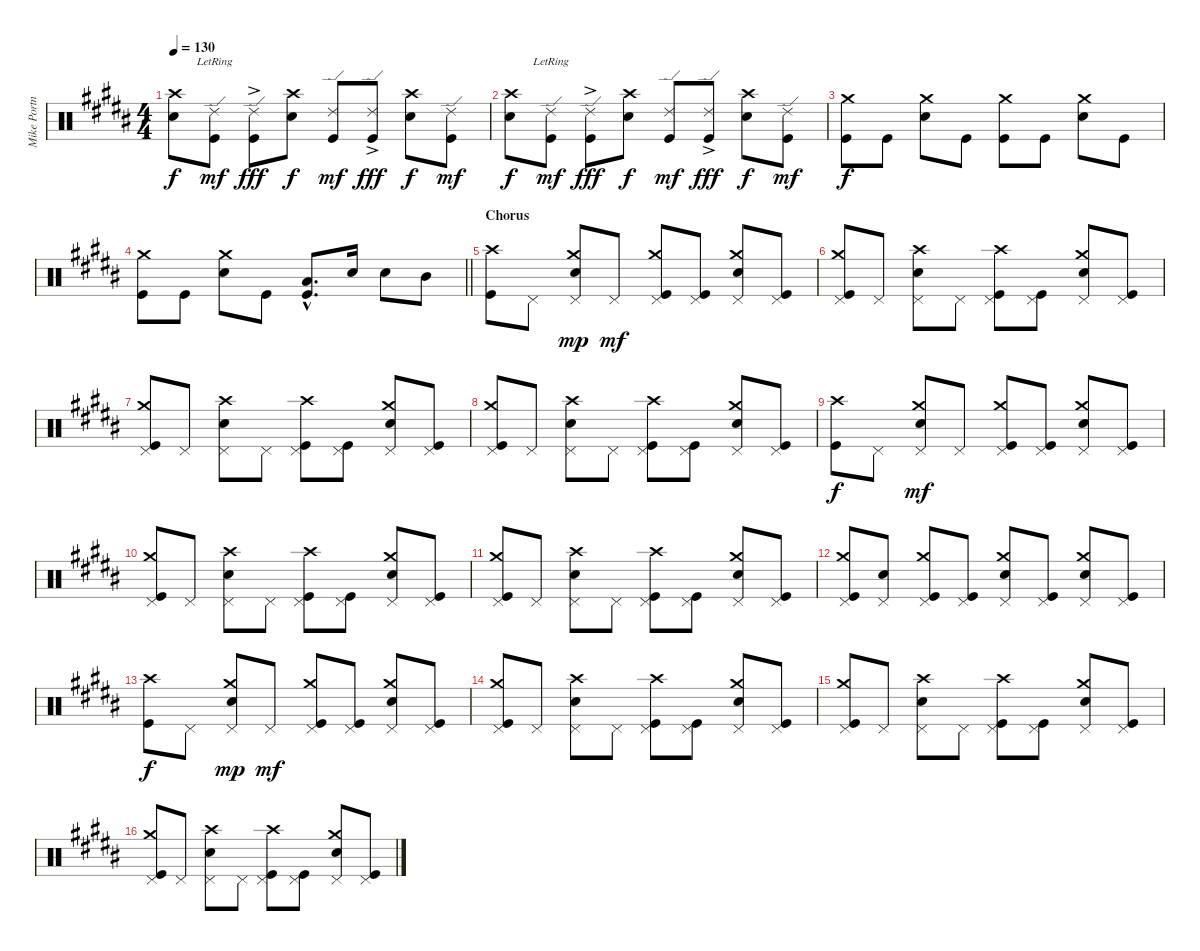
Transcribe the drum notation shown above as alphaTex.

\track ("Mike Portnoy" "Mike Portn") {instrument percussion}
\staff {score}
\articulation defaults
\ts (4 4)
\tempo 130
\clef neutral
\ks g#minor
("Crash high (hit)" "Electric Snare (hit)").8{dy f} ("Ride (edge) 2"{lr} "Kick (hit)").8{dy mf} ("Ride (edge) 2" "Kick (hit)"{ac}).8{dy fff} ("Crash high (hit)" "Electric Snare (hit)").8{dy f} ("Ride (edge) 2" "Kick (hit)").8{dy mf} ("Ride (edge) 2" "Kick (hit)"{ac}).8{dy fff} ("Crash high (hit)" "Electric Snare (hit)").8{dy f} ("Ride (edge) 2" "Kick (hit)").8{dy mf} |
("Crash high (hit)" "Electric Snare (hit)").8{dy f} ("Ride (edge) 2"{lr} "Kick (hit)").8{dy mf} ("Ride (edge) 2" "Kick (hit)"{ac}).8{dy fff} ("Crash high (hit)" "Electric Snare (hit)").8{dy f} ("Ride (edge) 2" "Kick (hit)").8{dy mf} ("Ride (edge) 2" "Kick (hit)"{ac}).8{dy fff} ("Crash high (hit)" "Electric Snare (hit)").8{dy f} ("Ride (edge) 2" "Kick (hit)").8{dy mf} |
("Crash medium (hit)" "Kick (hit)").8{dy f} "Kick (hit)".8 ("Crash medium (hit)" "Electric Snare (hit)").8 "Kick (hit)".8 ("Crash medium (hit)" "Kick (hit)").8 "Kick (hit)".8 ("Crash medium (hit)" "Electric Snare (hit)").8 "Kick (hit)".8 |
\barLineRight lightlight
("Crash medium (hit)" "Kick (hit)").8 "Kick (hit)".8 ("Crash medium (hit)" "Electric Snare (hit)").8 "Kick (hit)".8 ("Low Tom (hit)"{hac} "Kick (hit)"{hac}).8{d} "Electric Snare (hit)".16 "Electric Snare (hit)".8 "Mid Tom (hit)".8 |
\section ("" "Chorus")
("Crash high (hit)" "Kick (hit)").8 "Pedal Hi-Hat (hit)".8 ("Crash medium (hit)" "Pedal Hi-Hat (hit)" "Electric Snare (hit)").8{dy mp} "Pedal Hi-Hat (hit)".8{dy mf} ("Crash medium (hit)" "Pedal Hi-Hat (hit)" "Kick (hit)").8 ("Pedal Hi-Hat (hit)" "Kick (hit)").8 ("Crash medium (hit)" "Pedal Hi-Hat (hit)" "Electric Snare (hit)").8 ("Pedal Hi-Hat (hit)" "Kick (hit)").8 |
("Crash medium (hit)" "Pedal Hi-Hat (hit)" "Kick (hit)").8 "Pedal Hi-Hat (hit)".8 ("Crash high (hit)" "Pedal Hi-Hat (hit)" "Electric Snare (hit)").8 "Pedal Hi-Hat (hit)".8 ("Crash high (hit)" "Pedal Hi-Hat (hit)" "Kick (hit)").8 ("Pedal Hi-Hat (hit)" "Kick (hit)").8 ("Crash medium (hit)" "Pedal Hi-Hat (hit)" "Electric Snare (hit)").8 ("Pedal Hi-Hat (hit)" "Kick (hit)").8 |
("Crash medium (hit)" "Pedal Hi-Hat (hit)" "Kick (hit)").8 "Pedal Hi-Hat (hit)".8 ("Crash high (hit)" "Pedal Hi-Hat (hit)" "Electric Snare (hit)").8 "Pedal Hi-Hat (hit)".8 ("Crash high (hit)" "Pedal Hi-Hat (hit)" "Kick (hit)").8 ("Pedal Hi-Hat (hit)" "Kick (hit)").8 ("Crash medium (hit)" "Pedal Hi-Hat (hit)" "Electric Snare (hit)").8 ("Pedal Hi-Hat (hit)" "Kick (hit)").8 |
("Crash medium (hit)" "Pedal Hi-Hat (hit)" "Kick (hit)").8 "Pedal Hi-Hat (hit)".8 ("Crash high (hit)" "Pedal Hi-Hat (hit)" "Electric Snare (hit)").8 "Pedal Hi-Hat (hit)".8 ("Crash high (hit)" "Pedal Hi-Hat (hit)" "Kick (hit)").8 ("Pedal Hi-Hat (hit)" "Kick (hit)").8 ("Crash medium (hit)" "Pedal Hi-Hat (hit)" "Electric Snare (hit)").8 ("Pedal Hi-Hat (hit)" "Kick (hit)").8 |
("Crash high (hit)" "Kick (hit)").8{dy f} "Pedal Hi-Hat (hit)".8 ("Crash medium (hit)" "Pedal Hi-Hat (hit)" "Electric Snare (hit)").8{dy mf} "Pedal Hi-Hat (hit)".8 ("Crash medium (hit)" "Pedal Hi-Hat (hit)" "Kick (hit)").8 ("Pedal Hi-Hat (hit)" "Kick (hit)").8 ("Crash medium (hit)" "Pedal Hi-Hat (hit)" "Electric Snare (hit)").8 ("Pedal Hi-Hat (hit)" "Kick (hit)").8 |
("Crash medium (hit)" "Pedal Hi-Hat (hit)" "Kick (hit)").8 "Pedal Hi-Hat (hit)".8 ("Crash high (hit)" "Pedal Hi-Hat (hit)" "Electric Snare (hit)").8 "Pedal Hi-Hat (hit)".8 ("Crash high (hit)" "Pedal Hi-Hat (hit)" "Kick (hit)").8 ("Pedal Hi-Hat (hit)" "Kick (hit)").8 ("Crash medium (hit)" "Pedal Hi-Hat (hit)" "Electric Snare (hit)").8 ("Pedal Hi-Hat (hit)" "Kick (hit)").8 |
("Crash medium (hit)" "Pedal Hi-Hat (hit)" "Kick (hit)").8 "Pedal Hi-Hat (hit)".8 ("Crash high (hit)" "Pedal Hi-Hat (hit)" "Electric Snare (hit)").8 "Pedal Hi-Hat (hit)".8 ("Crash high (hit)" "Pedal Hi-Hat (hit)" "Kick (hit)").8 ("Pedal Hi-Hat (hit)" "Kick (hit)").8 ("Crash medium (hit)" "Pedal Hi-Hat (hit)" "Electric Snare (hit)").8 ("Pedal Hi-Hat (hit)" "Kick (hit)").8 |
("Crash medium (hit)" "Pedal Hi-Hat (hit)" "Kick (hit)").8 ("Pedal Hi-Hat (hit)" "Electric Snare (hit)").8 ("Crash medium (hit)" "Pedal Hi-Hat (hit)" "Kick (hit)").8 ("Pedal Hi-Hat (hit)" "Kick (hit)").8 ("Crash medium (hit)" "Pedal Hi-Hat (hit)" "Electric Snare (hit)").8 ("Pedal Hi-Hat (hit)" "Kick (hit)").8 ("Crash medium (hit)" "Pedal Hi-Hat (hit)" "Electric Snare (hit)").8 ("Pedal Hi-Hat (hit)" "Kick (hit)").8 |
("Crash high (hit)" "Kick (hit)").8{dy f} "Pedal Hi-Hat (hit)".8 ("Crash medium (hit)" "Pedal Hi-Hat (hit)" "Electric Snare (hit)").8{dy mp} "Pedal Hi-Hat (hit)".8{dy mf} ("Crash medium (hit)" "Pedal Hi-Hat (hit)" "Kick (hit)").8 ("Pedal Hi-Hat (hit)" "Kick (hit)").8 ("Crash medium (hit)" "Pedal Hi-Hat (hit)" "Electric Snare (hit)").8 ("Pedal Hi-Hat (hit)" "Kick (hit)").8 |
("Crash medium (hit)" "Pedal Hi-Hat (hit)" "Kick (hit)").8 "Pedal Hi-Hat (hit)".8 ("Crash high (hit)" "Pedal Hi-Hat (hit)" "Electric Snare (hit)").8 "Pedal Hi-Hat (hit)".8 ("Crash high (hit)" "Pedal Hi-Hat (hit)" "Kick (hit)").8 ("Pedal Hi-Hat (hit)" "Kick (hit)").8 ("Crash medium (hit)" "Pedal Hi-Hat (hit)" "Electric Snare (hit)").8 ("Pedal Hi-Hat (hit)" "Kick (hit)").8 |
("Crash medium (hit)" "Pedal Hi-Hat (hit)" "Kick (hit)").8 "Pedal Hi-Hat (hit)".8 ("Crash high (hit)" "Pedal Hi-Hat (hit)" "Electric Snare (hit)").8 "Pedal Hi-Hat (hit)".8 ("Crash high (hit)" "Pedal Hi-Hat (hit)" "Kick (hit)").8 ("Pedal Hi-Hat (hit)" "Kick (hit)").8 ("Crash medium (hit)" "Pedal Hi-Hat (hit)" "Electric Snare (hit)").8 ("Pedal Hi-Hat (hit)" "Kick (hit)").8 |
("Crash medium (hit)" "Pedal Hi-Hat (hit)" "Kick (hit)").8 "Pedal Hi-Hat (hit)".8 ("Crash high (hit)" "Pedal Hi-Hat (hit)" "Electric Snare (hit)").8 "Pedal Hi-Hat (hit)".8 ("Crash high (hit)" "Pedal Hi-Hat (hit)" "Kick (hit)").8 ("Pedal Hi-Hat (hit)" "Kick (hit)").8 ("Crash medium (hit)" "Pedal Hi-Hat (hit)" "Electric Snare (hit)").8 ("Pedal Hi-Hat (hit)" "Kick (hit)").8
